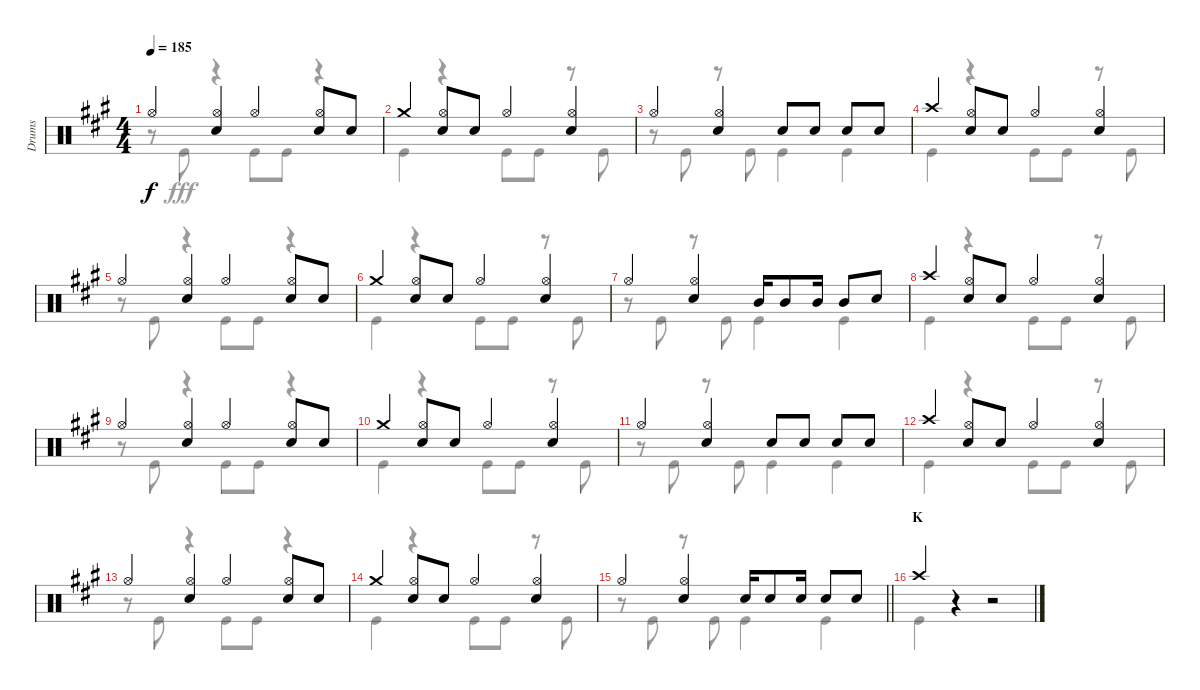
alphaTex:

\track ("Drums" "Drums") {instrument percussion}
\staff {score}
\articulation defaults
\voice
\ts (4 4)
\tempo 185
\clef neutral
\ks a "Hi-Hat (open)".4{dy f}
("Hi-Hat (open)" "Snare (hit) 2").4 "Hi-Hat (open)".4 ("Hi-Hat (open)" "Snare (hit) 2").8 "Snare (hit) 2".8 |
"Crash medium (hit)".4 ("Hi-Hat (open)" "Snare (hit) 2").8 "Snare (hit) 2".8 "Hi-Hat (open)".4 ("Hi-Hat (open)" "Snare (hit) 2").4 |
"Hi-Hat (open)".4 ("Hi-Hat (open)" "Snare (hit) 2").4 "Snare (hit) 2".8 "Snare (hit) 2".8 "Snare (hit) 2".8 "Snare (hit) 2".8 |
"Crash high (hit)".4 ("Hi-Hat (open)" "Snare (hit) 2").8 "Snare (hit) 2".8 "Hi-Hat (open)".4 ("Hi-Hat (open)" "Snare (hit) 2").4 |
"Hi-Hat (open)".4 ("Hi-Hat (open)" "Snare (hit) 2").4 "Hi-Hat (open)".4 ("Hi-Hat (open)" "Snare (hit) 2").8 "Snare (hit) 2".8 |
"Crash medium (hit)".4 ("Hi-Hat (open)" "Snare (hit) 2").8 "Snare (hit) 2".8 "Hi-Hat (open)".4 ("Hi-Hat (open)" "Snare (hit) 2").4 |
"Hi-Hat (open)".4 ("Hi-Hat (open)" "Snare (hit) 2").4 "Mid Tom (hit)".16 "Mid Tom (hit)".8 "Mid Tom (hit)".16 "Mid Tom (hit)".8 "Snare (hit) 2".8 |
"Crash high (hit)".4 ("Hi-Hat (open)" "Snare (hit) 2").8 "Snare (hit) 2".8 "Hi-Hat (open)".4 ("Hi-Hat (open)" "Snare (hit) 2").4 |
"Hi-Hat (open)".4 ("Hi-Hat (open)" "Snare (hit) 2").4 "Hi-Hat (open)".4 ("Hi-Hat (open)" "Snare (hit) 2").8 "Snare (hit) 2".8 |
"Crash medium (hit)".4 ("Hi-Hat (open)" "Snare (hit) 2").8 "Snare (hit) 2".8 "Hi-Hat (open)".4 ("Hi-Hat (open)" "Snare (hit) 2").4 |
"Hi-Hat (open)".4 ("Hi-Hat (open)" "Snare (hit) 2").4 "Snare (hit) 2".8 "Snare (hit) 2".8 "Snare (hit) 2".8 "Snare (hit) 2".8 |
"Crash high (hit)".4 ("Hi-Hat (open)" "Snare (hit) 2").8 "Snare (hit) 2".8 "Hi-Hat (open)".4 ("Hi-Hat (open)" "Snare (hit) 2").4 |
"Hi-Hat (open)".4 ("Hi-Hat (open)" "Snare (hit) 2").4 "Hi-Hat (open)".4 ("Hi-Hat (open)" "Snare (hit) 2").8 "Snare (hit) 2".8 |
"Crash medium (hit)".4 ("Hi-Hat (open)" "Snare (hit) 2").8 "Snare (hit) 2".8 "Hi-Hat (open)".4 ("Hi-Hat (open)" "Snare (hit) 2").4 |
\barLineRight lightlight "Hi-Hat (open)".4
("Hi-Hat (open)" "Snare (hit) 2").4 "Snare (hit) 2".16 "Snare (hit) 2".8 "Snare (hit) 2".16 "Snare (hit) 2".8 "Snare (hit) 2".8 |
\section ("" "K")
"Crash high (hit)".4 r.4 r.2
\voice
\clef neutral
\ottava regular
\simile none
\ks a
r.8{dy fff} "Kick (hit)".8 r.4 "Kick (hit)".8 "Kick (hit)".8 r.4 |
"Kick (hit)".4 r.4 "Kick (hit)".8 "Kick (hit)".8 r.8 "Kick (hit)".8 |
r.8 "Kick (hit)".8 r.8 "Kick (hit)".8 "Kick (hit)".4 "Kick (hit)".4 |
"Kick (hit)".4 r.4 "Kick (hit)".8 "Kick (hit)".8 r.8 "Kick (hit)".8 |
r.8 "Kick (hit)".8 r.4 "Kick (hit)".8 "Kick (hit)".8 r.4 |
"Kick (hit)".4 r.4 "Kick (hit)".8 "Kick (hit)".8 r.8 "Kick (hit)".8 |
r.8 "Kick (hit)".8 r.8 "Kick (hit)".8 "Kick (hit)".4 "Kick (hit)".4 |
"Kick (hit)".4 r.4 "Kick (hit)".8 "Kick (hit)".8 r.8 "Kick (hit)".8 |
r.8 "Kick (hit)".8 r.4 "Kick (hit)".8 "Kick (hit)".8 r.4 |
"Kick (hit)".4 r.4 "Kick (hit)".8 "Kick (hit)".8 r.8 "Kick (hit)".8 |
r.8 "Kick (hit)".8 r.8 "Kick (hit)".8 "Kick (hit)".4 "Kick (hit)".4 |
"Kick (hit)".4 r.4 "Kick (hit)".8 "Kick (hit)".8 r.8 "Kick (hit)".8 |
r.8 "Kick (hit)".8 r.4 "Kick (hit)".8 "Kick (hit)".8 r.4 |
"Kick (hit)".4 r.4 "Kick (hit)".8 "Kick (hit)".8 r.8 "Kick (hit)".8 |
\barLineRight lightlight
r.8 "Kick (hit)".8 r.8 "Kick (hit)".8 "Kick (hit)".4 "Kick (hit)".4 |
"Kick (hit)".4 r.4 r.2
